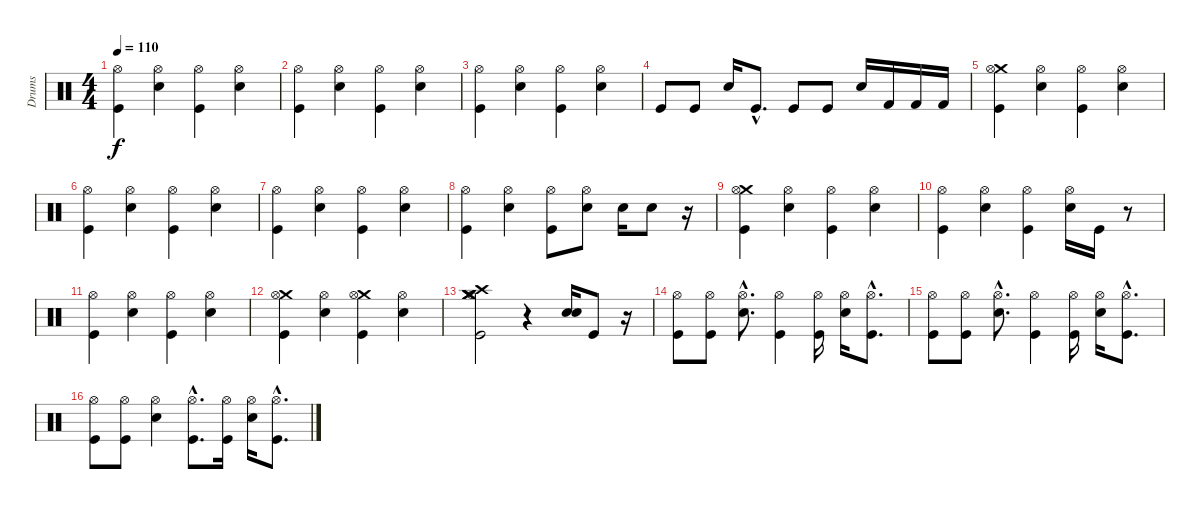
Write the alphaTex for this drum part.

\track ("Drums" "Drums") {instrument percussion}
\staff {score}
\articulation defaults
\ts (4 4)
\tempo 110
\clef neutral
\ks c
("Hi-Hat (open)" "Kick (hit)").4{dy f} ("Hi-Hat (open)" "Snare (hit) 2").4 ("Hi-Hat (open)" "Kick (hit)").4 ("Hi-Hat (open)" "Snare (hit) 2").4 |
("Hi-Hat (open)" "Kick (hit)").4 ("Hi-Hat (open)" "Snare (hit) 2").4 ("Hi-Hat (open)" "Kick (hit)").4 ("Hi-Hat (open)" "Snare (hit) 2").4 |
("Hi-Hat (open)" "Kick (hit)").4 ("Hi-Hat (open)" "Snare (hit) 2").4 ("Hi-Hat (open)" "Kick (hit)").4 ("Hi-Hat (open)" "Snare (hit) 2").4 |
"Kick (hit)".8 "Kick (hit)".8 "Snare (hit) 2".16 "Kick (hit)"{hac}.8{d} "Kick (hit)".8 "Kick (hit)".8 "Snare (hit) 2".16 "Kick (hit) 2".16 "Kick (hit) 2".16 "Kick (hit) 2".16 |
("Crash medium (hit)" "Hi-Hat (open)" "Kick (hit)").4 ("Hi-Hat (open)" "Snare (hit) 2").4 ("Hi-Hat (open)" "Kick (hit)").4 ("Hi-Hat (open)" "Snare (hit) 2").4 |
("Hi-Hat (open)" "Kick (hit)").4 ("Hi-Hat (open)" "Snare (hit) 2").4 ("Hi-Hat (open)" "Kick (hit)").4 ("Hi-Hat (open)" "Snare (hit) 2").4 |
("Hi-Hat (open)" "Kick (hit)").4 ("Hi-Hat (open)" "Snare (hit) 2").4 ("Hi-Hat (open)" "Kick (hit)").4 ("Hi-Hat (open)" "Snare (hit) 2").4 |
("Hi-Hat (open)" "Kick (hit)").4 ("Hi-Hat (open)" "Snare (hit) 2").4 ("Hi-Hat (open)" "Kick (hit)").8 ("Hi-Hat (open)" "Snare (hit) 2").8 "Snare (hit) 2".16 "Snare (hit) 2".8 r.16 |
("Crash medium (hit)" "Hi-Hat (open)" "Kick (hit)").4 ("Hi-Hat (open)" "Snare (hit) 2").4 ("Hi-Hat (open)" "Kick (hit)").4 ("Hi-Hat (open)" "Snare (hit) 2").4 |
("Hi-Hat (open)" "Kick (hit)").4 ("Hi-Hat (open)" "Snare (hit) 2").4 ("Hi-Hat (open)" "Kick (hit)").4 ("Hi-Hat (open)" "Snare (hit) 2").16 "Kick (hit)".16 r.8 |
("Hi-Hat (open)" "Kick (hit)").4 ("Hi-Hat (open)" "Snare (hit) 2").4 ("Hi-Hat (open)" "Kick (hit)").4 ("Hi-Hat (open)" "Snare (hit) 2").4 |
("Crash medium (hit)" "Hi-Hat (open)" "Kick (hit)").4 ("Hi-Hat (open)" "Snare (hit) 2").4 ("Crash medium (hit)" "Hi-Hat (open)" "Kick (hit)").4 ("Hi-Hat (open)" "Snare (hit) 2").4 |
("Hi-Hat (open)" "Crash medium (hit)" "Crash medium (hit)" "Crash medium (hit)" "Crash high (hit)" "Kick (hit)").2 r.4 ("Snare (hit) 2" "Snare (hit) 2").16 "Kick (hit)".8 r.16 |
("Hi-Hat (open)" "Kick (hit)").8 ("Hi-Hat (open)" "Kick (hit)").8 ("Hi-Hat (open)"{hac} "Snare (hit) 2"{hac}).8{d} ("Hi-Hat (open)" "Kick (hit)").4 ("Hi-Hat (open)" "Kick (hit)").16 ("Hi-Hat (open)" "Snare (hit) 2").16 ("Hi-Hat (open)"{hac} "Kick (hit)"{hac}).8{d} |
("Hi-Hat (open)" "Kick (hit)").8 ("Hi-Hat (open)" "Kick (hit)").8 ("Hi-Hat (open)"{hac} "Snare (hit) 2"{hac}).8{d} ("Hi-Hat (open)" "Kick (hit)").4 ("Hi-Hat (open)" "Kick (hit)").16 ("Hi-Hat (open)" "Snare (hit) 2").16 ("Hi-Hat (open)"{hac} "Kick (hit)"{hac}).8{d} |
("Hi-Hat (open)" "Kick (hit)").8 ("Hi-Hat (open)" "Kick (hit)").8 ("Hi-Hat (open)" "Snare (hit) 2").4 ("Hi-Hat (open)"{hac} "Kick (hit)"{hac}).8{d} ("Hi-Hat (open)" "Kick (hit)").16 ("Hi-Hat (open)" "Snare (hit) 2").16 ("Hi-Hat (open)"{hac} "Kick (hit)"{hac}).8{d}
